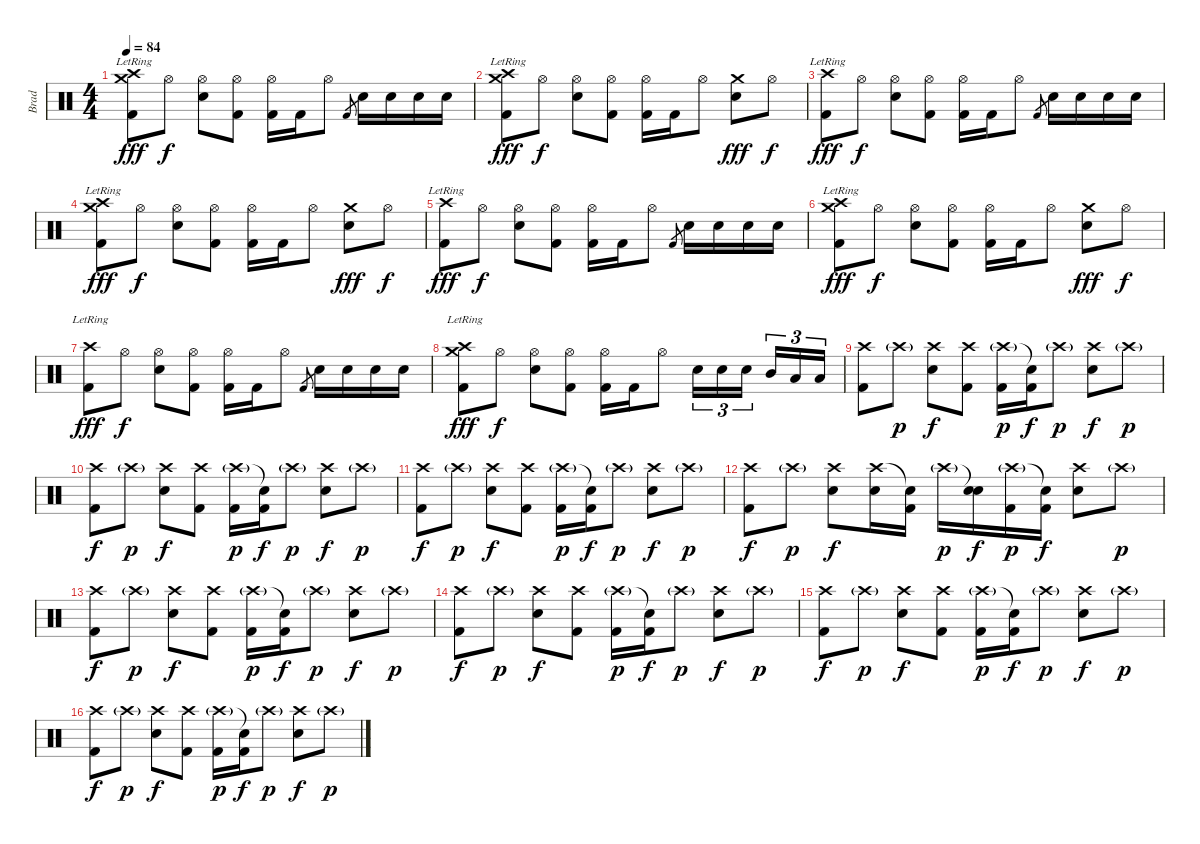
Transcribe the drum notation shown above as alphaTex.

\track ("Brad" "Brad") {instrument percussion}
\staff {score}
\articulation defaults
\ts (4 4)
\tempo 84
\clef neutral
\ks c
("Crash high (hit)"{lr} "Crash medium (hit)" "Kick (hit) 2").8{dy fff} "Hi-Hat (open)".8{dy f} ("Hi-Hat (open)" "Electric Snare (hit)").8 ("Hi-Hat (open)" "Kick (hit) 2").8 ("Hi-Hat (open)" "Kick (hit) 2").16 "Kick (hit) 2".16 "Hi-Hat (open)".8 "Kick (hit) 2".8{gr} "Electric Snare (hit)".16 "Electric Snare (hit)".16 "Electric Snare (hit)".16 "Electric Snare (hit)".16 |
("Crash high (hit)"{lr} "Crash medium (hit)"{lr} "Kick (hit) 2").8{dy fff} "Hi-Hat (open)".8{dy f} ("Hi-Hat (open)" "Electric Snare (hit)").8 ("Hi-Hat (open)" "Kick (hit) 2").8 ("Hi-Hat (open)" "Kick (hit) 2").16 "Kick (hit) 2".16 "Hi-Hat (open)".8 ("Crash medium (hit)" "Electric Snare (hit)").8{dy fff} "Hi-Hat (open)".8{dy f} |
("Crash high (hit)"{lr} "Kick (hit) 2").8{dy fff} "Hi-Hat (open)".8{dy f} ("Hi-Hat (open)" "Electric Snare (hit)").8 ("Hi-Hat (open)" "Kick (hit) 2").8 ("Hi-Hat (open)" "Kick (hit) 2").16 "Kick (hit) 2".16 "Hi-Hat (open)".8 "Kick (hit) 2".8{gr} "Electric Snare (hit)".16 "Electric Snare (hit)".16 "Electric Snare (hit)".16 "Electric Snare (hit)".16 |
("Crash high (hit)"{lr} "Crash medium (hit)"{lr} "Kick (hit) 2").8{dy fff} "Hi-Hat (open)".8{dy f} ("Hi-Hat (open)" "Electric Snare (hit)").8 ("Hi-Hat (open)" "Kick (hit) 2").8 ("Hi-Hat (open)" "Kick (hit) 2").16 "Kick (hit) 2".16 "Hi-Hat (open)".8 ("Crash medium (hit)" "Electric Snare (hit)").8{dy fff} "Hi-Hat (open)".8{dy f} |
("Crash high (hit)"{lr} "Kick (hit) 2").8{dy fff} "Hi-Hat (open)".8{dy f} ("Hi-Hat (open)" "Electric Snare (hit)").8 ("Hi-Hat (open)" "Kick (hit) 2").8 ("Hi-Hat (open)" "Kick (hit) 2").16 "Kick (hit) 2".16 "Hi-Hat (open)".8 "Kick (hit) 2".8{gr} "Electric Snare (hit)".16 "Electric Snare (hit)".16 "Electric Snare (hit)".16 "Electric Snare (hit)".16 |
("Crash high (hit)"{lr} "Crash medium (hit)"{lr} "Kick (hit) 2").8{dy fff} "Hi-Hat (open)".8{dy f} ("Hi-Hat (open)" "Electric Snare (hit)").8 ("Hi-Hat (open)" "Kick (hit) 2").8 ("Hi-Hat (open)" "Kick (hit) 2").16 "Kick (hit) 2".16 "Hi-Hat (open)".8 ("Crash medium (hit)" "Electric Snare (hit)").8{dy fff} "Hi-Hat (open)".8{dy f} |
("Crash high (hit)"{lr} "Kick (hit) 2").8{dy fff} "Hi-Hat (open)".8{dy f} ("Hi-Hat (open)" "Electric Snare (hit)").8 ("Hi-Hat (open)" "Kick (hit) 2").8 ("Hi-Hat (open)" "Kick (hit) 2").16 "Kick (hit) 2".16 "Hi-Hat (open)".8 "Kick (hit) 2".8{gr} "Electric Snare (hit)".16 "Electric Snare (hit)".16 "Electric Snare (hit)".16 "Electric Snare (hit)".16 |
("Crash high (hit)"{lr} "Crash medium (hit)"{lr} "Kick (hit) 2").8{dy fff} "Hi-Hat (open)".8{dy f} ("Hi-Hat (open)" "Electric Snare (hit)").8 ("Hi-Hat (open)" "Kick (hit) 2").8 ("Hi-Hat (open)" "Kick (hit) 2").16 "Kick (hit) 2".16 "Hi-Hat (open)".8 "Electric Snare (hit)".16{tu (3 2)} "Electric Snare (hit)".16{tu (3 2)} "Electric Snare (hit)".16{tu (3 2)} "Mid Tom (hit)".16{tu (3 2)} "Low Tom (hit)".16{tu (3 2)} "Low Floor Tom (hit)".16{tu (3 2)} |
("Crash high (hit)" "Kick (hit) 2").8 "Crash high (hit)"{g}.8{dy p} ("Crash high (hit)" "Electric Snare (hit)").8{dy f} ("Crash high (hit)" "Kick (hit) 2").8 ("Crash high (hit)"{g} "Kick (hit) 2").16{dy p} ("Snare (hit)"{t} "Kick (hit) 2").16{dy f} "Crash high (hit)"{g}.8{dy p} ("Crash high (hit)" "Electric Snare (hit)").8{dy f} "Crash high (hit)"{g}.8{dy p} |
("Crash high (hit)" "Kick (hit) 2").8{dy f} "Crash high (hit)"{g}.8{dy p} ("Crash high (hit)" "Electric Snare (hit)").8{dy f} ("Crash high (hit)" "Kick (hit) 2").8 ("Crash high (hit)"{g} "Kick (hit) 2").16{dy p} ("Snare (hit)"{t} "Kick (hit) 2").16{dy f} "Crash high (hit)"{g}.8{dy p} ("Crash high (hit)" "Electric Snare (hit)").8{dy f} "Crash high (hit)"{g}.8{dy p} |
("Crash high (hit)" "Kick (hit) 2").8{dy f} "Crash high (hit)"{g}.8{dy p} ("Crash high (hit)" "Electric Snare (hit)").8{dy f} ("Crash high (hit)" "Kick (hit) 2").8 ("Crash high (hit)"{g} "Kick (hit) 2").16{dy p} ("Snare (hit)"{t} "Kick (hit) 2").16{dy f} "Crash high (hit)"{g}.8{dy p} ("Crash high (hit)" "Electric Snare (hit)").8{dy f} "Crash high (hit)"{g}.8{dy p} |
("Crash high (hit)" "Kick (hit) 2").8{dy f} "Crash high (hit)"{g}.8{dy p} ("Crash high (hit)" "Electric Snare (hit)").8{dy f} ("Crash high (hit)" "Electric Snare (hit)").16 ("Snare (hit)"{t} "Kick (hit) 2").16 "Crash high (hit)"{g}.16{dy p} ("Snare (hit)"{t} "Electric Snare (hit)").16{dy f} ("Crash high (hit)"{g} "Kick (hit) 2").16{dy p} ("Snare (hit)"{t} "Kick (hit) 2").16{dy f} ("Crash high (hit)" "Electric Snare (hit)").8 "Crash high (hit)"{g}.8{dy p} |
("Crash high (hit)" "Kick (hit) 2").8{dy f} "Crash high (hit)"{g}.8{dy p} ("Crash high (hit)" "Electric Snare (hit)").8{dy f} ("Crash high (hit)" "Kick (hit) 2").8 ("Crash high (hit)"{g} "Kick (hit) 2").16{dy p} ("Snare (hit)"{t} "Kick (hit) 2").16{dy f} "Crash high (hit)"{g}.8{dy p} ("Crash high (hit)" "Electric Snare (hit)").8{dy f} "Crash high (hit)"{g}.8{dy p} |
("Crash high (hit)" "Kick (hit) 2").8{dy f} "Crash high (hit)"{g}.8{dy p} ("Crash high (hit)" "Electric Snare (hit)").8{dy f} ("Crash high (hit)" "Kick (hit) 2").8 ("Crash high (hit)"{g} "Kick (hit) 2").16{dy p} ("Snare (hit)"{t} "Kick (hit) 2").16{dy f} "Crash high (hit)"{g}.8{dy p} ("Crash high (hit)" "Electric Snare (hit)").8{dy f} "Crash high (hit)"{g}.8{dy p} |
("Crash high (hit)" "Kick (hit) 2").8{dy f} "Crash high (hit)"{g}.8{dy p} ("Crash high (hit)" "Electric Snare (hit)").8{dy f} ("Crash high (hit)" "Kick (hit) 2").8 ("Crash high (hit)"{g} "Kick (hit) 2").16{dy p} ("Snare (hit)"{t} "Kick (hit) 2").16{dy f} "Crash high (hit)"{g}.8{dy p} ("Crash high (hit)" "Electric Snare (hit)").8{dy f} "Crash high (hit)"{g}.8{dy p} |
("Crash high (hit)" "Kick (hit) 2").8{dy f} "Crash high (hit)"{g}.8{dy p} ("Crash high (hit)" "Electric Snare (hit)").8{dy f} ("Crash high (hit)" "Kick (hit) 2").8 ("Crash high (hit)"{g} "Kick (hit) 2").16{dy p} ("Snare (hit)"{t} "Kick (hit) 2").16{dy f} "Crash high (hit)"{g}.8{dy p} ("Crash high (hit)" "Electric Snare (hit)").8{dy f} "Crash high (hit)"{g}.8{dy p}
